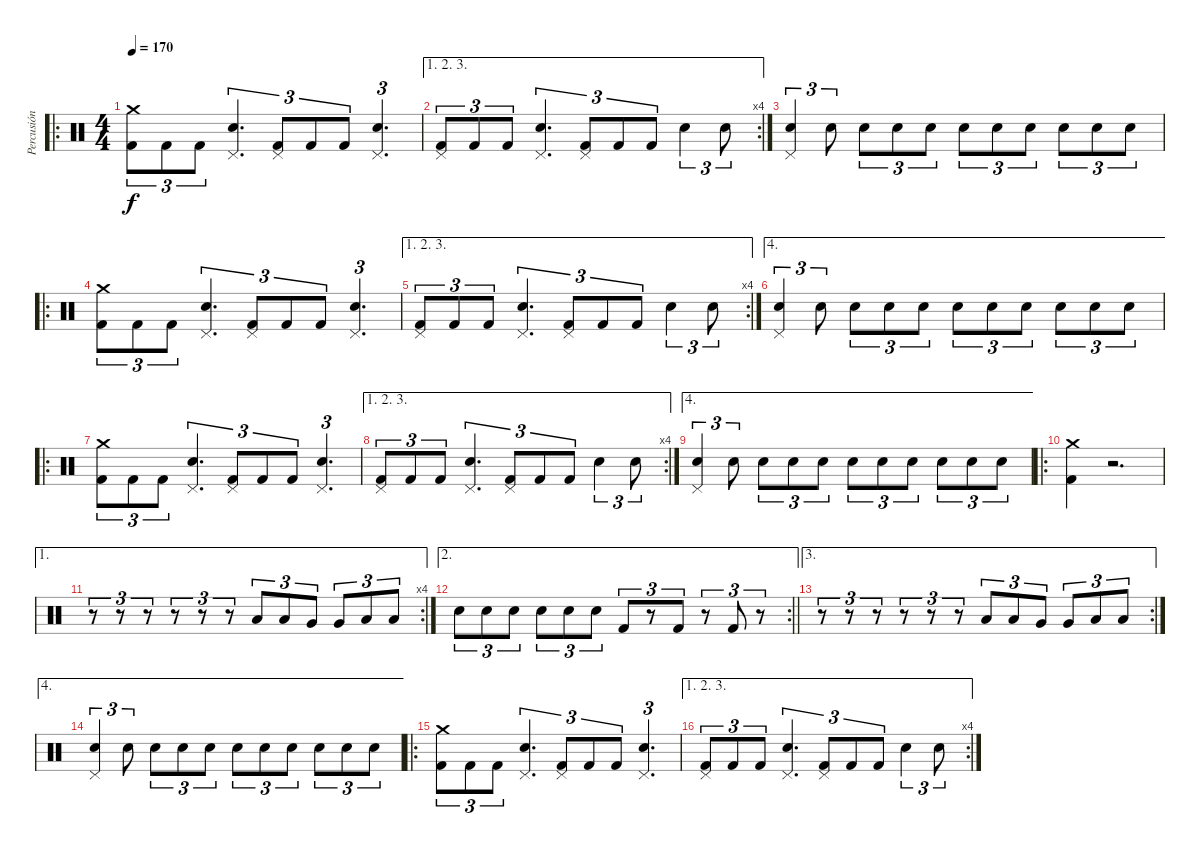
\track ("Percusión" "Percusión") {instrument percussion}
\staff {score}
\articulation defaults
\ro
\ts (4 4)
\tempo 170
\clef neutral
\ks c
("Kick (hit) 2" "Crash medium (hit)").8{tu (3 2) dy f} "Kick (hit) 2".8{tu (3 2)} "Kick (hit) 2".8{tu (3 2)} ("Electric Snare (hit)" "Pedal Hi-Hat (hit)").4{d tu (3 2)} ("Kick (hit) 2" "Pedal Hi-Hat (hit)").8{tu (3 2)} "Kick (hit) 2".8{tu (3 2)} "Kick (hit) 2".8{tu (3 2)} ("Electric Snare (hit)" "Pedal Hi-Hat (hit)").4{d tu (3 2)} |
\ae (1 2 3)
\rc 4
("Kick (hit) 2" "Pedal Hi-Hat (hit)").8{tu (3 2)} "Kick (hit) 2".8{tu (3 2)} "Kick (hit) 2".8{tu (3 2)} ("Electric Snare (hit)" "Pedal Hi-Hat (hit)").4{d tu (3 2)} ("Kick (hit) 2" "Pedal Hi-Hat (hit)").8{tu (3 2)} "Kick (hit) 2".8{tu (3 2)} "Kick (hit) 2".8{tu (3 2)} "Electric Snare (hit)".4{tu (3 2)} "Electric Snare (hit)".8{tu (3 2)} |
("Electric Snare (hit)" "Pedal Hi-Hat (hit)").4{tu (3 2)} "Electric Snare (hit)".8{tu (3 2)} "Electric Snare (hit)".8{tu (3 2)} "Electric Snare (hit)".8{tu (3 2)} "Electric Snare (hit)".8{tu (3 2)} "Electric Snare (hit)".8{tu (3 2)} "Electric Snare (hit)".8{tu (3 2)} "Electric Snare (hit)".8{tu (3 2)} "Electric Snare (hit)".8{tu (3 2)} "Electric Snare (hit)".8{tu (3 2)} "Electric Snare (hit)".8{tu (3 2)} |
\ro
("Kick (hit) 2" "Crash medium (hit)").8{tu (3 2)} "Kick (hit) 2".8{tu (3 2)} "Kick (hit) 2".8{tu (3 2)} ("Electric Snare (hit)" "Pedal Hi-Hat (hit)").4{d tu (3 2)} ("Kick (hit) 2" "Pedal Hi-Hat (hit)").8{tu (3 2)} "Kick (hit) 2".8{tu (3 2)} "Kick (hit) 2".8{tu (3 2)} ("Electric Snare (hit)" "Pedal Hi-Hat (hit)").4{d tu (3 2)} |
\ae (1 2 3)
\rc 4
("Kick (hit) 2" "Pedal Hi-Hat (hit)").8{tu (3 2)} "Kick (hit) 2".8{tu (3 2)} "Kick (hit) 2".8{tu (3 2)} ("Electric Snare (hit)" "Pedal Hi-Hat (hit)").4{d tu (3 2)} ("Kick (hit) 2" "Pedal Hi-Hat (hit)").8{tu (3 2)} "Kick (hit) 2".8{tu (3 2)} "Kick (hit) 2".8{tu (3 2)} "Electric Snare (hit)".4{tu (3 2)} "Electric Snare (hit)".8{tu (3 2)} |
\ae 4
("Electric Snare (hit)" "Pedal Hi-Hat (hit)").4{tu (3 2)} "Electric Snare (hit)".8{tu (3 2)} "Electric Snare (hit)".8{tu (3 2)} "Electric Snare (hit)".8{tu (3 2)} "Electric Snare (hit)".8{tu (3 2)} "Electric Snare (hit)".8{tu (3 2)} "Electric Snare (hit)".8{tu (3 2)} "Electric Snare (hit)".8{tu (3 2)} "Electric Snare (hit)".8{tu (3 2)} "Electric Snare (hit)".8{tu (3 2)} "Electric Snare (hit)".8{tu (3 2)} |
\ro
("Kick (hit) 2" "Crash medium (hit)").8{tu (3 2)} "Kick (hit) 2".8{tu (3 2)} "Kick (hit) 2".8{tu (3 2)} ("Electric Snare (hit)" "Pedal Hi-Hat (hit)").4{d tu (3 2)} ("Kick (hit) 2" "Pedal Hi-Hat (hit)").8{tu (3 2)} "Kick (hit) 2".8{tu (3 2)} "Kick (hit) 2".8{tu (3 2)} ("Electric Snare (hit)" "Pedal Hi-Hat (hit)").4{d tu (3 2)} |
\ae (1 2 3)
\rc 4
("Kick (hit) 2" "Pedal Hi-Hat (hit)").8{tu (3 2)} "Kick (hit) 2".8{tu (3 2)} "Kick (hit) 2".8{tu (3 2)} ("Electric Snare (hit)" "Pedal Hi-Hat (hit)").4{d tu (3 2)} ("Kick (hit) 2" "Pedal Hi-Hat (hit)").8{tu (3 2)} "Kick (hit) 2".8{tu (3 2)} "Kick (hit) 2".8{tu (3 2)} "Electric Snare (hit)".4{tu (3 2)} "Electric Snare (hit)".8{tu (3 2)} |
\ae 4
("Electric Snare (hit)" "Pedal Hi-Hat (hit)").4{tu (3 2)} "Electric Snare (hit)".8{tu (3 2)} "Electric Snare (hit)".8{tu (3 2)} "Electric Snare (hit)".8{tu (3 2)} "Electric Snare (hit)".8{tu (3 2)} "Electric Snare (hit)".8{tu (3 2)} "Electric Snare (hit)".8{tu (3 2)} "Electric Snare (hit)".8{tu (3 2)} "Electric Snare (hit)".8{tu (3 2)} "Electric Snare (hit)".8{tu (3 2)} "Electric Snare (hit)".8{tu (3 2)} |
\ro
("Crash medium (hit)" "Kick (hit) 2").4 r.2{d} |
\ae 1
\rc 4
r.8{tu (3 2)} r.8{tu (3 2)} r.8{tu (3 2)} r.8{tu (3 2)} r.8{tu (3 2)} r.8{tu (3 2)} "Low Floor Tom (hit)".8{tu (3 2)} "Low Floor Tom (hit)".8{tu (3 2)} "Very Low Tom (hit)".8{tu (3 2)} "Very Low Tom (hit)".8{tu (3 2)} "Low Tom (hit)".8{tu (3 2)} "Low Tom (hit)".8{tu (3 2)} |
\ae 2
\rc 2
\barLineRight lightlight "Electric Snare (hit)".8{tu (3 2)} "Electric Snare (hit)".8{tu (3 2)} "Electric Snare (hit)".8{tu (3 2)} "Electric Snare (hit)".8{tu (3 2)} "Electric Snare (hit)".8{tu (3 2)} "Electric Snare (hit)".8{tu (3 2)} "Kick (hit) 2".8{tu (3 2)}
r.8{tu (3 2)} "Kick (hit) 2".8{tu (3 2)} r.8{tu (3 2)} "Kick (hit) 2".8{tu (3 2)} r.8{tu (3 2)} |
\ae 3
\rc 2
r.8{tu (3 2)} r.8{tu (3 2)} r.8{tu (3 2)} r.8{tu (3 2)} r.8{tu (3 2)} r.8{tu (3 2)} "Low Floor Tom (hit)".8{tu (3 2)} "Low Floor Tom (hit)".8{tu (3 2)} "Very Low Tom (hit)".8{tu (3 2)} "Very Low Tom (hit)".8{tu (3 2)} "Low Tom (hit)".8{tu (3 2)} "Low Tom (hit)".8{tu (3 2)} |
\ae 4
("Electric Snare (hit)" "Pedal Hi-Hat (hit)").4{tu (3 2)} "Electric Snare (hit)".8{tu (3 2)} "Electric Snare (hit)".8{tu (3 2)} "Electric Snare (hit)".8{tu (3 2)} "Electric Snare (hit)".8{tu (3 2)} "Electric Snare (hit)".8{tu (3 2)} "Electric Snare (hit)".8{tu (3 2)} "Electric Snare (hit)".8{tu (3 2)} "Electric Snare (hit)".8{tu (3 2)} "Electric Snare (hit)".8{tu (3 2)} "Electric Snare (hit)".8{tu (3 2)} |
\ro
("Kick (hit) 2" "Crash medium (hit)").8{tu (3 2)} "Kick (hit) 2".8{tu (3 2)} "Kick (hit) 2".8{tu (3 2)} ("Electric Snare (hit)" "Pedal Hi-Hat (hit)").4{d tu (3 2)} ("Kick (hit) 2" "Pedal Hi-Hat (hit)").8{tu (3 2)} "Kick (hit) 2".8{tu (3 2)} "Kick (hit) 2".8{tu (3 2)} ("Electric Snare (hit)" "Pedal Hi-Hat (hit)").4{d tu (3 2)} |
\ae (1 2 3)
\rc 4
("Kick (hit) 2" "Pedal Hi-Hat (hit)").8{tu (3 2)} "Kick (hit) 2".8{tu (3 2)} "Kick (hit) 2".8{tu (3 2)} ("Electric Snare (hit)" "Pedal Hi-Hat (hit)").4{d tu (3 2)} ("Kick (hit) 2" "Pedal Hi-Hat (hit)").8{tu (3 2)} "Kick (hit) 2".8{tu (3 2)} "Kick (hit) 2".8{tu (3 2)} "Electric Snare (hit)".4{tu (3 2)} "Electric Snare (hit)".8{tu (3 2)}
